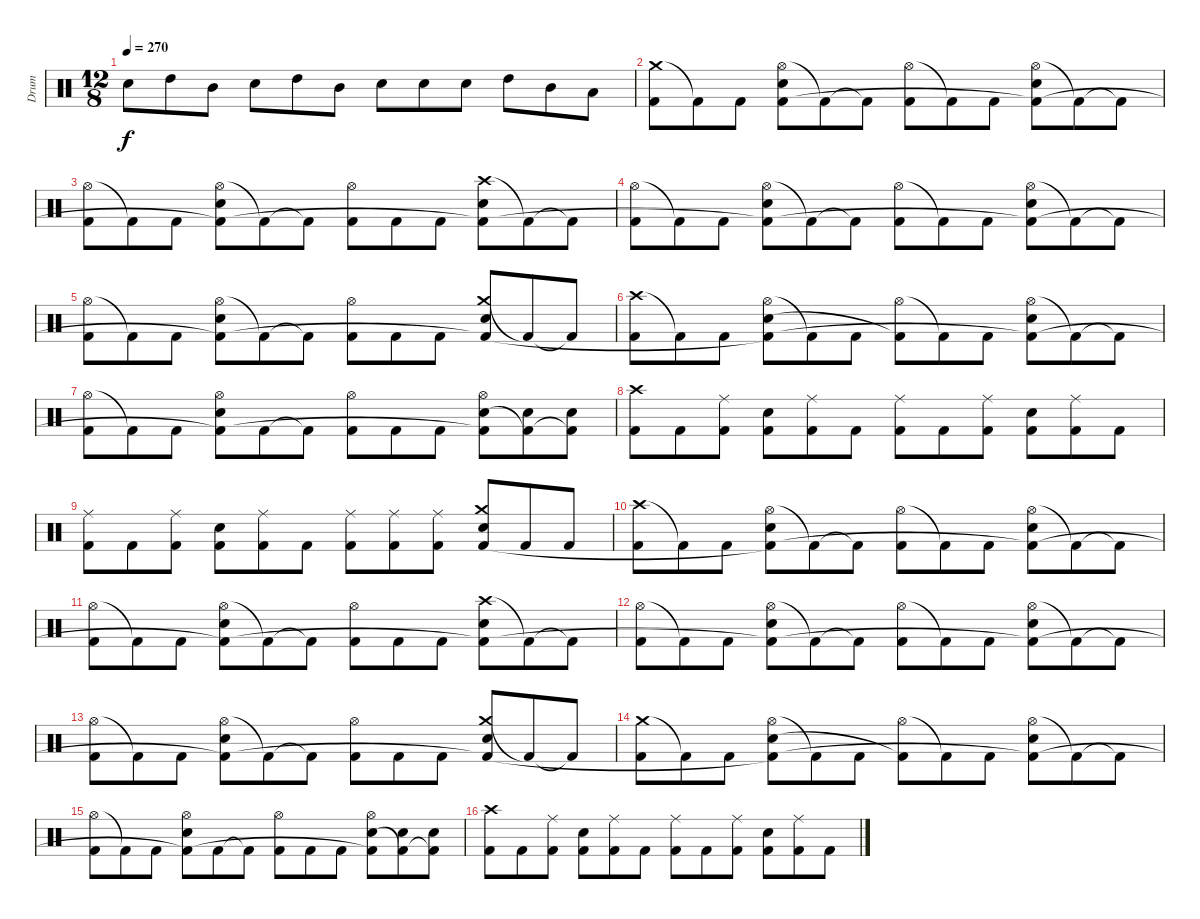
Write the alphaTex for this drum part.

\track ("Drum" "Drum") {instrument percussion}
\staff {score}
\articulation defaults
\ts (12 8)
\tempo 270
\clef neutral
\ks c "Electric Snare (hit)".8{dy f} "High Tom (hit)".8 "Mid Tom (hit)".8 "Electric Snare (hit)".8 "High Tom (hit)".8 "Mid Tom (hit)".8 "Electric Snare (hit)".8 "Electric Snare (hit)".8 "Electric Snare (hit)".8 "High Tom (hit)".8 "Mid Tom (hit)".8 "Low Tom (hit)".8
|
("Crash medium (hit)" "Kick (hit) 2").8 "Kick (hit) 2"{t}.8 "Kick (hit) 2".8 ("Hi-Hat (open)" "Electric Snare (hit)" "Kick (hit) 2"{t}).8 "Kick (hit) 2"{t}.8 "Kick (hit) 2"{t}.8 ("Hi-Hat (open)" "Kick (hit) 2").8 "Kick (hit) 2"{t}.8 "Kick (hit) 2".8 ("Hi-Hat (open)" "Electric Snare (hit)" "Kick (hit) 2"{t}).8 "Kick (hit) 2"{t}.8 "Kick (hit) 2"{t}.8 |
("Hi-Hat (open)" "Kick (hit) 2").8 "Kick (hit) 2"{t}.8 "Kick (hit) 2".8 ("Hi-Hat (open)" "Electric Snare (hit)" "Kick (hit) 2"{t}).8 "Kick (hit) 2"{t}.8 "Kick (hit) 2"{t}.8 ("Hi-Hat (open)" "Kick (hit) 2").8 "Kick (hit) 2".8 "Kick (hit) 2".8 ("Crash high (hit)" "Electric Snare (hit)" "Kick (hit) 2"{t}).8 "Kick (hit) 2"{t}.8 "Kick (hit) 2"{t}.8 |
("Hi-Hat (open)" "Kick (hit) 2").8 "Kick (hit) 2"{t}.8 "Kick (hit) 2".8 ("Hi-Hat (open)" "Electric Snare (hit)" "Kick (hit) 2"{t}).8 "Kick (hit) 2"{t}.8 "Kick (hit) 2"{t}.8 ("Hi-Hat (open)" "Kick (hit) 2").8 "Kick (hit) 2"{t}.8 "Kick (hit) 2".8 ("Hi-Hat (open)" "Electric Snare (hit)" "Kick (hit) 2"{t}).8 "Kick (hit) 2"{t}.8 "Kick (hit) 2"{t}.8 |
("Hi-Hat (open)" "Kick (hit) 2").8 "Kick (hit) 2"{t}.8 "Kick (hit) 2".8 ("Hi-Hat (open)" "Electric Snare (hit)" "Kick (hit) 2"{t}).8 "Kick (hit) 2"{t}.8 "Kick (hit) 2"{t}.8 ("Hi-Hat (open)" "Kick (hit) 2").8 "Kick (hit) 2".8 "Kick (hit) 2".8 ("Crash medium (hit)" "Electric Snare (hit)" "Kick (hit) 2"{t}).8 "Kick (hit) 2"{t}.8 "Kick (hit) 2"{t}.8 |
("Crash high (hit)" "Kick (hit) 2").8 "Kick (hit) 2"{t}.8 "Kick (hit) 2".8 ("Hi-Hat (open)" "Electric Snare (hit)" "Kick (hit) 2"{t}).8 "Kick (hit) 2"{t}.8 "Kick (hit) 2".8 ("Hi-Hat (open)" "Kick (hit) 2"{t}).8 "Kick (hit) 2"{t}.8 "Kick (hit) 2".8 ("Hi-Hat (open)" "Electric Snare (hit)" "Kick (hit) 2"{t}).8 "Kick (hit) 2"{t}.8 "Kick (hit) 2"{t}.8 |
("Hi-Hat (open)" "Kick (hit) 2").8 "Kick (hit) 2"{t}.8 "Kick (hit) 2".8 ("Hi-Hat (open)" "Electric Snare (hit)" "Kick (hit) 2"{t}).8 "Kick (hit) 2".8 "Kick (hit) 2"{t}.8 ("Hi-Hat (open)" "Kick (hit) 2").8 "Kick (hit) 2".8 "Kick (hit) 2".8 ("Hi-Hat (open)" "Electric Snare (hit)" "Kick (hit) 2"{t}).8 ("Electric Snare (hit)" "Kick (hit) 2"{t}).8 ("Electric Snare (hit)" "Kick (hit) 2"{t}).8 |
("Crash high (hit)" "Kick (hit) 2").8 "Kick (hit) 2".8 ("Ride (middle)" "Kick (hit) 2").8 ("Electric Snare (hit)" "Kick (hit) 2").8 ("Ride (middle)" "Kick (hit) 2").8 "Kick (hit) 2".8 ("Ride (middle)" "Kick (hit) 2").8 "Kick (hit) 2".8 ("Ride (middle)" "Kick (hit) 2").8 ("Electric Snare (hit)" "Kick (hit) 2").8 ("Ride (middle)" "Kick (hit) 2").8 "Kick (hit) 2".8 |
("Ride (middle)" "Kick (hit) 2").8 "Kick (hit) 2".8 ("Ride (middle)" "Kick (hit) 2").8 ("Electric Snare (hit)" "Kick (hit) 2").8 ("Ride (middle)" "Kick (hit) 2").8 "Kick (hit) 2".8 ("Ride (middle)" "Kick (hit) 2").8 ("Ride (middle)" "Kick (hit) 2").8 ("Ride (middle)" "Kick (hit) 2").8 ("Crash medium (hit)" "Electric Snare (hit)" "Kick (hit) 2").8 "Kick (hit) 2".8 "Kick (hit) 2".8 |
("Crash high (hit)" "Kick (hit) 2").8 "Kick (hit) 2"{t}.8 "Kick (hit) 2".8 ("Hi-Hat (open)" "Electric Snare (hit)" "Kick (hit) 2"{t}).8 "Kick (hit) 2"{t}.8 "Kick (hit) 2"{t}.8 ("Hi-Hat (open)" "Kick (hit) 2").8 "Kick (hit) 2"{t}.8 "Kick (hit) 2".8 ("Hi-Hat (open)" "Electric Snare (hit)" "Kick (hit) 2"{t}).8 "Kick (hit) 2"{t}.8 "Kick (hit) 2"{t}.8 |
("Hi-Hat (open)" "Kick (hit) 2").8 "Kick (hit) 2"{t}.8 "Kick (hit) 2".8 ("Hi-Hat (open)" "Electric Snare (hit)" "Kick (hit) 2"{t}).8 "Kick (hit) 2"{t}.8 "Kick (hit) 2"{t}.8 ("Hi-Hat (open)" "Kick (hit) 2").8 "Kick (hit) 2".8 "Kick (hit) 2".8 ("Crash high (hit)" "Electric Snare (hit)" "Kick (hit) 2"{t}).8 "Kick (hit) 2"{t}.8 "Kick (hit) 2"{t}.8 |
("Hi-Hat (open)" "Kick (hit) 2").8 "Kick (hit) 2"{t}.8 "Kick (hit) 2".8 ("Hi-Hat (open)" "Electric Snare (hit)" "Kick (hit) 2"{t}).8 "Kick (hit) 2"{t}.8 "Kick (hit) 2"{t}.8 ("Hi-Hat (open)" "Kick (hit) 2").8 "Kick (hit) 2"{t}.8 "Kick (hit) 2".8 ("Hi-Hat (open)" "Electric Snare (hit)" "Kick (hit) 2"{t}).8 "Kick (hit) 2"{t}.8 "Kick (hit) 2"{t}.8 |
("Hi-Hat (open)" "Kick (hit) 2").8 "Kick (hit) 2"{t}.8 "Kick (hit) 2".8 ("Hi-Hat (open)" "Electric Snare (hit)" "Kick (hit) 2"{t}).8 "Kick (hit) 2"{t}.8 "Kick (hit) 2"{t}.8 ("Hi-Hat (open)" "Kick (hit) 2").8 "Kick (hit) 2".8 "Kick (hit) 2".8 ("Crash medium (hit)" "Electric Snare (hit)" "Kick (hit) 2"{t}).8 "Kick (hit) 2"{t}.8 "Kick (hit) 2"{t}.8 |
("Crash medium (hit)" "Kick (hit) 2").8 "Kick (hit) 2"{t}.8 "Kick (hit) 2".8 ("Hi-Hat (open)" "Electric Snare (hit)" "Kick (hit) 2"{t}).8 "Kick (hit) 2"{t}.8 "Kick (hit) 2".8 ("Hi-Hat (open)" "Kick (hit) 2"{t}).8 "Kick (hit) 2"{t}.8 "Kick (hit) 2".8 ("Hi-Hat (open)" "Electric Snare (hit)" "Kick (hit) 2"{t}).8 "Kick (hit) 2"{t}.8 "Kick (hit) 2"{t}.8 |
("Hi-Hat (open)" "Kick (hit) 2").8 "Kick (hit) 2"{t}.8 "Kick (hit) 2".8 ("Hi-Hat (open)" "Electric Snare (hit)" "Kick (hit) 2"{t}).8 "Kick (hit) 2".8 "Kick (hit) 2"{t}.8 ("Hi-Hat (open)" "Kick (hit) 2").8 "Kick (hit) 2".8 "Kick (hit) 2".8 ("Hi-Hat (open)" "Electric Snare (hit)" "Kick (hit) 2"{t}).8 ("Electric Snare (hit)" "Kick (hit) 2"{t}).8 ("Electric Snare (hit)" "Kick (hit) 2"{t}).8 |
("Crash high (hit)" "Kick (hit) 2").8 "Kick (hit) 2".8 ("Ride (middle)" "Kick (hit) 2").8 ("Electric Snare (hit)" "Kick (hit) 2").8 ("Ride (middle)" "Kick (hit) 2").8 "Kick (hit) 2".8 ("Ride (middle)" "Kick (hit) 2").8 "Kick (hit) 2".8 ("Ride (middle)" "Kick (hit) 2").8 ("Electric Snare (hit)" "Kick (hit) 2").8 ("Ride (middle)" "Kick (hit) 2").8 "Kick (hit) 2".8
